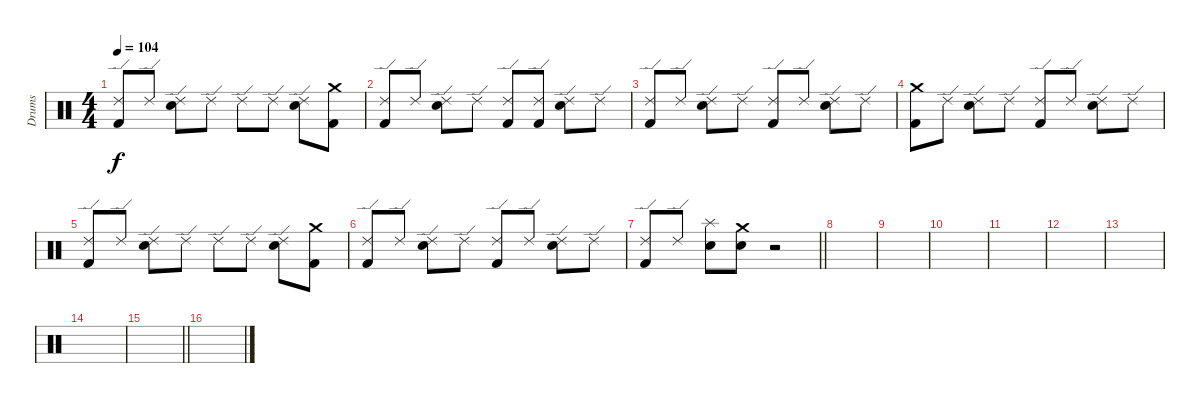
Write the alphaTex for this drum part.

\track ("Drums" "Drums") {instrument percussion}
\staff {score}
\articulation defaults
\ts (4 4)
\tempo 104
\clef neutral
\ks c
("Ride (edge) 2" "Kick (hit) 2").8{dy f} "Ride (edge) 2".8 ("Ride (edge) 2" "Snare (hit) 2").8 "Ride (edge) 2".8 "Ride (edge) 2".8 "Ride (edge) 2".8 ("Ride (edge) 2" "Snare (hit) 2").8 ("Crash medium (hit)" "Kick (hit) 2").8 |
("Ride (edge) 2" "Kick (hit) 2").8 "Ride (edge) 2".8 ("Ride (edge) 2" "Snare (hit) 2").8 "Ride (edge) 2".8 ("Ride (edge) 2" "Kick (hit) 2").8 ("Ride (edge) 2" "Kick (hit) 2").8 ("Ride (edge) 2" "Snare (hit) 2").8 "Ride (edge) 2".8 |
("Ride (edge) 2" "Kick (hit) 2").8 "Ride (edge) 2".8 ("Ride (edge) 2" "Snare (hit) 2").8 "Ride (edge) 2".8 ("Ride (edge) 2" "Kick (hit) 2").8 "Ride (edge) 2".8 ("Ride (edge) 2" "Snare (hit) 2").8 "Ride (edge) 2".8 |
("Crash medium (hit)" "Kick (hit) 2").8 "Ride (edge) 2".8 ("Ride (edge) 2" "Snare (hit) 2").8 "Ride (edge) 2".8 ("Ride (edge) 2" "Kick (hit) 2").8 "Ride (edge) 2".8 ("Ride (edge) 2" "Snare (hit) 2").8 "Ride (edge) 2".8 |
("Ride (edge) 2" "Kick (hit) 2").8 "Ride (edge) 2".8 ("Ride (edge) 2" "Snare (hit) 2").8 "Ride (edge) 2".8 "Ride (edge) 2".8 "Ride (edge) 2".8 ("Ride (edge) 2" "Snare (hit) 2").8 ("Crash medium (hit)" "Kick (hit) 2").8 |
("Ride (edge) 2" "Kick (hit) 2").8 "Ride (edge) 2".8 ("Ride (edge) 2" "Snare (hit) 2").8 "Ride (edge) 2".8 ("Ride (edge) 2" "Kick (hit) 2").8 "Ride (edge) 2".8 ("Ride (edge) 2" "Snare (hit) 2").8 "Ride (edge) 2".8 |
\barLineRight lightlight
("Ride (edge) 2" "Kick (hit) 2").8 "Ride (edge) 2".8 ("Splash (hit)" "Snare (hit) 2").8 ("Crash medium (hit)" "Snare (hit) 2").8 r.2 |
\section ("" "")
|
|
|
|
|
|
|
\barLineRight lightlight
|
\section ("" "")
